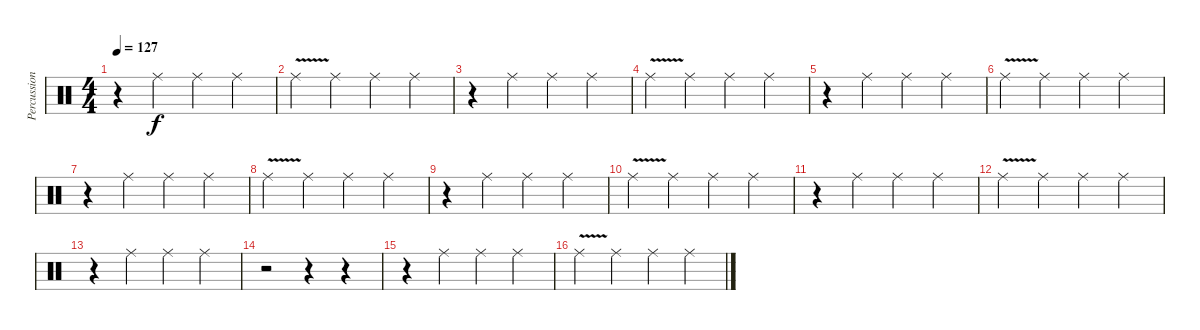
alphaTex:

\track ("Percussion" "Percussion") {instrument percussion}
\staff {score}
\articulation defaults
\ts (4 4)
\tempo 127
\clef neutral
\ks c
r.4{dy f} "Ride (middle)".4 "Ride (middle)".4 "Ride (middle)".4 |
"Ride (middle)"{v}.4 "Ride (middle)".4 "Ride (middle)".4 "Ride (middle)".4 |
r.4 "Ride (middle)".4 "Ride (middle)".4 "Ride (middle)".4 |
"Ride (middle)"{v}.4 "Ride (middle)".4 "Ride (middle)".4 "Ride (middle)".4 |
r.4 "Ride (middle)".4 "Ride (middle)".4 "Ride (middle)".4 |
"Ride (middle)"{v}.4 "Ride (middle)".4 "Ride (middle)".4 "Ride (middle)".4 |
r.4 "Ride (middle)".4 "Ride (middle)".4 "Ride (middle)".4 |
"Ride (middle)"{v}.4 "Ride (middle)".4 "Ride (middle)".4 "Ride (middle)".4 |
r.4 "Ride (middle)".4 "Ride (middle)".4 "Ride (middle)".4 |
"Ride (middle)"{v}.4 "Ride (middle)".4 "Ride (middle)".4 "Ride (middle)".4 |
r.4 "Ride (middle)".4 "Ride (middle)".4 "Ride (middle)".4 |
"Ride (middle)"{v}.4 "Ride (middle)".4 "Ride (middle)".4 "Ride (middle)".4 |
r.4 "Ride (middle)".4 "Ride (middle)".4 "Ride (middle)".4 |
r.2 r.4 r.4 |
r.4 "Ride (middle)".4 "Ride (middle)".4 "Ride (middle)".4 |
"Ride (middle)"{v}.4 "Ride (middle)".4 "Ride (middle)".4 "Ride (middle)".4
